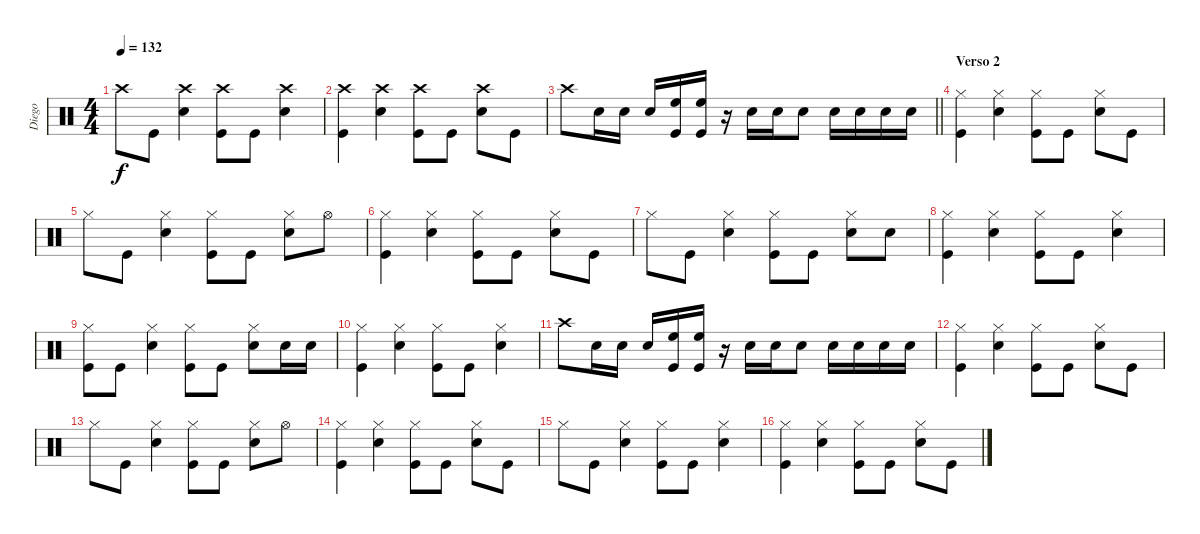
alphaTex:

\track ("Diego" "Diego") {instrument percussion}
\staff {score}
\articulation defaults
\ts (4 4)
\tempo 132
\clef neutral
\ks c "Crash high (hit)".8{dy f} "Kick (hit)".8
("Crash high (hit)" "Snare (hit) 2").4 ("Crash high (hit)" "Kick (hit)").8 "Kick (hit)".8 ("Crash high (hit)" "Snare (hit) 2").4 |
("Crash high (hit)" "Kick (hit)").4 ("Crash high (hit)" "Snare (hit) 2").4 ("Crash high (hit)" "Kick (hit)").8 "Kick (hit)".8 ("Crash high (hit)" "Snare (hit) 2").8 "Kick (hit)".8 |
\barLineRight lightlight "Crash high (hit)".8 "Snare (hit) 2".16 "Snare (hit) 2".16 "Snare (hit) 2".16
("High Floor Tom (hit)" "Kick (hit)").16 ("High Floor Tom (hit)" "Kick (hit)").16 r.16 "Snare (hit) 2".16 "Snare (hit) 2".16 "Snare (hit) 2".8 "Snare (hit) 2".16 "Snare (hit) 2".16 "Snare (hit) 2".16 "Snare (hit) 2".16 |
\section ("" "Verso 2")
("Hi-Hat (closed)" "Kick (hit)").4 ("Hi-Hat (closed)" "Snare (hit) 2").4 ("Hi-Hat (closed)" "Kick (hit)").8 "Kick (hit)".8 ("Hi-Hat (closed)" "Snare (hit) 2").8 "Kick (hit)".8 |
"Hi-Hat (closed)".8 "Kick (hit)".8 ("Hi-Hat (closed)" "Snare (hit) 2").4 ("Hi-Hat (closed)" "Kick (hit)").8 "Kick (hit)".8 ("Hi-Hat (closed)" "Snare (hit) 2").8 "Hi-Hat (open)".8 |
("Hi-Hat (closed)" "Kick (hit)").4 ("Hi-Hat (closed)" "Snare (hit) 2").4 ("Hi-Hat (closed)" "Kick (hit)").8 "Kick (hit)".8 ("Hi-Hat (closed)" "Snare (hit) 2").8 "Kick (hit)".8 |
"Hi-Hat (closed)".8 "Kick (hit)".8 ("Hi-Hat (closed)" "Snare (hit) 2").4 ("Hi-Hat (closed)" "Kick (hit)").8 "Kick (hit)".8 ("Hi-Hat (closed)" "Snare (hit) 2").8 "Snare (hit) 2".8 |
("Hi-Hat (closed)" "Kick (hit)").4 ("Hi-Hat (closed)" "Snare (hit) 2").4 ("Hi-Hat (closed)" "Kick (hit)").8 "Kick (hit)".8 ("Hi-Hat (closed)" "Snare (hit) 2").4 |
("Hi-Hat (closed)" "Kick (hit)").8 "Kick (hit)".8 ("Hi-Hat (closed)" "Snare (hit) 2").4 ("Hi-Hat (closed)" "Kick (hit)").8 "Kick (hit)".8 ("Hi-Hat (closed)" "Snare (hit) 2").8 "Snare (hit) 2".16 "Snare (hit) 2".16 |
("Hi-Hat (closed)" "Kick (hit)").4 ("Hi-Hat (closed)" "Snare (hit) 2").4 ("Hi-Hat (closed)" "Kick (hit)").8 "Kick (hit)".8 ("Hi-Hat (closed)" "Snare (hit) 2").4 |
"Crash high (hit)".8 "Snare (hit) 2".16 "Snare (hit) 2".16 "Snare (hit) 2".16 ("High Floor Tom (hit)" "Kick (hit)").16 ("High Floor Tom (hit)" "Kick (hit)").16 r.16 "Snare (hit) 2".16 "Snare (hit) 2".16 "Snare (hit) 2".8 "Snare (hit) 2".16 "Snare (hit) 2".16 "Snare (hit) 2".16 "Snare (hit) 2".16 |
("Hi-Hat (closed)" "Kick (hit)").4 ("Hi-Hat (closed)" "Snare (hit) 2").4 ("Hi-Hat (closed)" "Kick (hit)").8 "Kick (hit)".8 ("Hi-Hat (closed)" "Snare (hit) 2").8 "Kick (hit)".8 |
"Hi-Hat (closed)".8 "Kick (hit)".8 ("Hi-Hat (closed)" "Snare (hit) 2").4 ("Hi-Hat (closed)" "Kick (hit)").8 "Kick (hit)".8 ("Hi-Hat (closed)" "Snare (hit) 2").8 "Hi-Hat (open)".8 |
("Hi-Hat (closed)" "Kick (hit)").4 ("Hi-Hat (closed)" "Snare (hit) 2").4 ("Hi-Hat (closed)" "Kick (hit)").8 "Kick (hit)".8 ("Hi-Hat (closed)" "Snare (hit) 2").8 "Kick (hit)".8 |
"Hi-Hat (closed)".8 "Kick (hit)".8 ("Hi-Hat (closed)" "Snare (hit) 2").4 ("Hi-Hat (closed)" "Kick (hit)").8 "Kick (hit)".8 ("Hi-Hat (closed)" "Snare (hit) 2").4 |
("Hi-Hat (closed)" "Kick (hit)").4 ("Hi-Hat (closed)" "Snare (hit) 2").4 ("Hi-Hat (closed)" "Kick (hit)").8 "Kick (hit)".8 ("Hi-Hat (closed)" "Snare (hit) 2").8 "Kick (hit)".8
